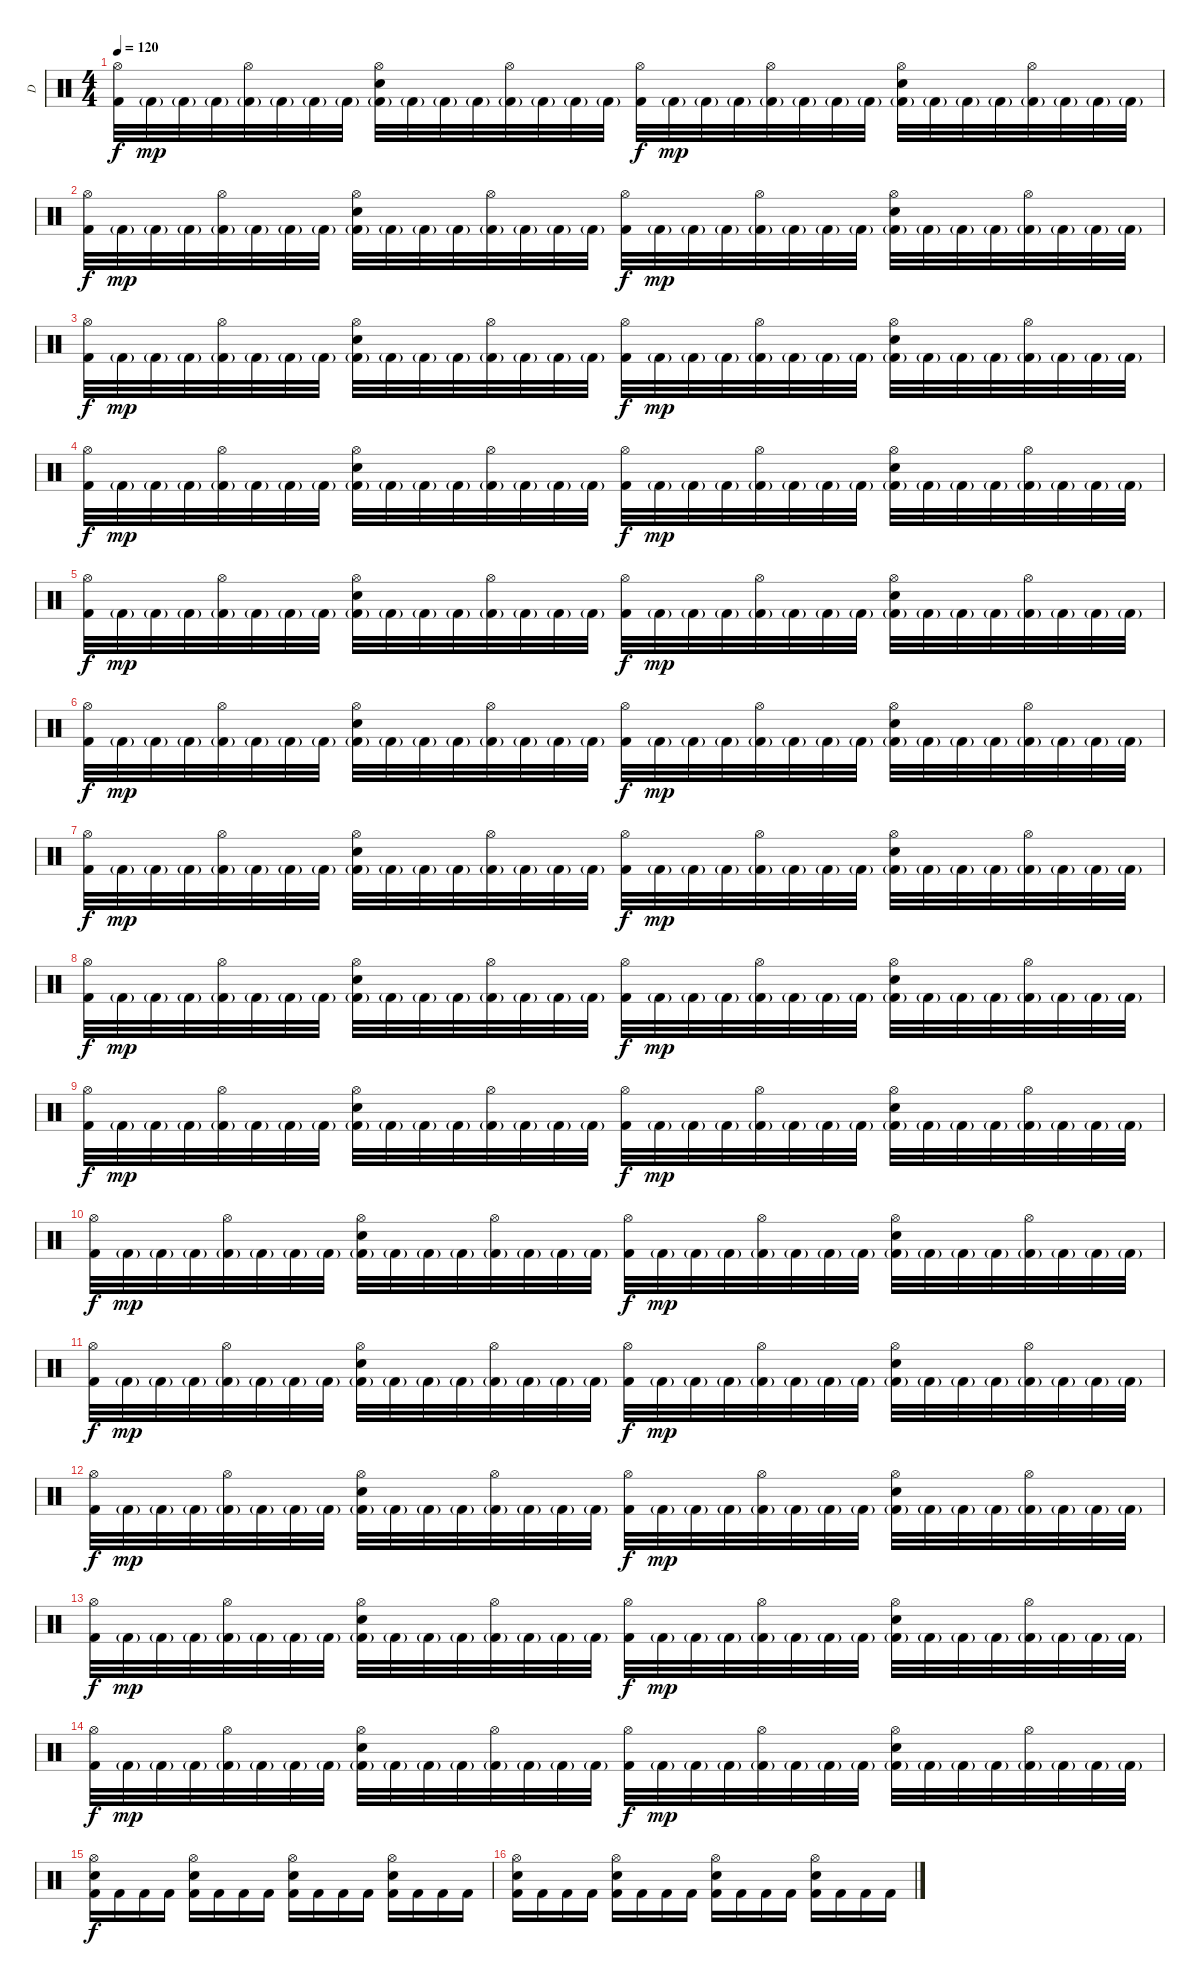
\track ("D" "D") {instrument percussion}
\staff {score}
\articulation defaults
\ts (4 4)
\tempo 120
\clef neutral
\ks c
("Hi-Hat (open)" "Kick (hit) 2").32{dy f} "Kick (hit) 2"{g}.32{dy mp} "Kick (hit) 2"{g}.32 "Kick (hit) 2"{g}.32 ("Hi-Hat (open)" "Kick (hit) 2"{g}).32 "Kick (hit) 2"{g}.32 "Kick (hit) 2"{g}.32 "Kick (hit) 2"{g}.32 ("Hi-Hat (open)" "Electric Snare (hit)" "Kick (hit) 2"{g}).32 "Kick (hit) 2"{g}.32 "Kick (hit) 2"{g}.32 "Kick (hit) 2"{g}.32 ("Hi-Hat (open)" "Kick (hit) 2"{g}).32 "Kick (hit) 2"{g}.32 "Kick (hit) 2"{g}.32 "Kick (hit) 2"{g}.32 ("Hi-Hat (open)" "Kick (hit) 2").32{dy f} "Kick (hit) 2"{g}.32{dy mp} "Kick (hit) 2"{g}.32 "Kick (hit) 2"{g}.32 ("Hi-Hat (open)" "Kick (hit) 2"{g}).32 "Kick (hit) 2"{g}.32 "Kick (hit) 2"{g}.32 "Kick (hit) 2"{g}.32 ("Hi-Hat (open)" "Electric Snare (hit)" "Kick (hit) 2"{g}).32 "Kick (hit) 2"{g}.32 "Kick (hit) 2"{g}.32 "Kick (hit) 2"{g}.32 ("Hi-Hat (open)" "Kick (hit) 2"{g}).32 "Kick (hit) 2"{g}.32 "Kick (hit) 2"{g}.32 "Kick (hit) 2"{g}.32 |
("Hi-Hat (open)" "Kick (hit) 2").32{dy f} "Kick (hit) 2"{g}.32{dy mp} "Kick (hit) 2"{g}.32 "Kick (hit) 2"{g}.32 ("Hi-Hat (open)" "Kick (hit) 2"{g}).32 "Kick (hit) 2"{g}.32 "Kick (hit) 2"{g}.32 "Kick (hit) 2"{g}.32 ("Hi-Hat (open)" "Electric Snare (hit)" "Kick (hit) 2"{g}).32 "Kick (hit) 2"{g}.32 "Kick (hit) 2"{g}.32 "Kick (hit) 2"{g}.32 ("Hi-Hat (open)" "Kick (hit) 2"{g}).32 "Kick (hit) 2"{g}.32 "Kick (hit) 2"{g}.32 "Kick (hit) 2"{g}.32 ("Hi-Hat (open)" "Kick (hit) 2").32{dy f} "Kick (hit) 2"{g}.32{dy mp} "Kick (hit) 2"{g}.32 "Kick (hit) 2"{g}.32 ("Hi-Hat (open)" "Kick (hit) 2"{g}).32 "Kick (hit) 2"{g}.32 "Kick (hit) 2"{g}.32 "Kick (hit) 2"{g}.32 ("Hi-Hat (open)" "Electric Snare (hit)" "Kick (hit) 2"{g}).32 "Kick (hit) 2"{g}.32 "Kick (hit) 2"{g}.32 "Kick (hit) 2"{g}.32 ("Hi-Hat (open)" "Kick (hit) 2"{g}).32 "Kick (hit) 2"{g}.32 "Kick (hit) 2"{g}.32 "Kick (hit) 2"{g}.32 |
("Hi-Hat (open)" "Kick (hit) 2").32{dy f} "Kick (hit) 2"{g}.32{dy mp} "Kick (hit) 2"{g}.32 "Kick (hit) 2"{g}.32 ("Hi-Hat (open)" "Kick (hit) 2"{g}).32 "Kick (hit) 2"{g}.32 "Kick (hit) 2"{g}.32 "Kick (hit) 2"{g}.32 ("Hi-Hat (open)" "Electric Snare (hit)" "Kick (hit) 2"{g}).32 "Kick (hit) 2"{g}.32 "Kick (hit) 2"{g}.32 "Kick (hit) 2"{g}.32 ("Hi-Hat (open)" "Kick (hit) 2"{g}).32 "Kick (hit) 2"{g}.32 "Kick (hit) 2"{g}.32 "Kick (hit) 2"{g}.32 ("Hi-Hat (open)" "Kick (hit) 2").32{dy f} "Kick (hit) 2"{g}.32{dy mp} "Kick (hit) 2"{g}.32 "Kick (hit) 2"{g}.32 ("Hi-Hat (open)" "Kick (hit) 2"{g}).32 "Kick (hit) 2"{g}.32 "Kick (hit) 2"{g}.32 "Kick (hit) 2"{g}.32 ("Hi-Hat (open)" "Electric Snare (hit)" "Kick (hit) 2"{g}).32 "Kick (hit) 2"{g}.32 "Kick (hit) 2"{g}.32 "Kick (hit) 2"{g}.32 ("Hi-Hat (open)" "Kick (hit) 2"{g}).32 "Kick (hit) 2"{g}.32 "Kick (hit) 2"{g}.32 "Kick (hit) 2"{g}.32 |
("Hi-Hat (open)" "Kick (hit) 2").32{dy f} "Kick (hit) 2"{g}.32{dy mp} "Kick (hit) 2"{g}.32 "Kick (hit) 2"{g}.32 ("Hi-Hat (open)" "Kick (hit) 2"{g}).32 "Kick (hit) 2"{g}.32 "Kick (hit) 2"{g}.32 "Kick (hit) 2"{g}.32 ("Hi-Hat (open)" "Electric Snare (hit)" "Kick (hit) 2"{g}).32 "Kick (hit) 2"{g}.32 "Kick (hit) 2"{g}.32 "Kick (hit) 2"{g}.32 ("Hi-Hat (open)" "Kick (hit) 2"{g}).32 "Kick (hit) 2"{g}.32 "Kick (hit) 2"{g}.32 "Kick (hit) 2"{g}.32 ("Hi-Hat (open)" "Kick (hit) 2").32{dy f} "Kick (hit) 2"{g}.32{dy mp} "Kick (hit) 2"{g}.32 "Kick (hit) 2"{g}.32 ("Hi-Hat (open)" "Kick (hit) 2"{g}).32 "Kick (hit) 2"{g}.32 "Kick (hit) 2"{g}.32 "Kick (hit) 2"{g}.32 ("Hi-Hat (open)" "Electric Snare (hit)" "Kick (hit) 2"{g}).32 "Kick (hit) 2"{g}.32 "Kick (hit) 2"{g}.32 "Kick (hit) 2"{g}.32 ("Hi-Hat (open)" "Kick (hit) 2"{g}).32 "Kick (hit) 2"{g}.32 "Kick (hit) 2"{g}.32 "Kick (hit) 2"{g}.32 |
("Hi-Hat (open)" "Kick (hit) 2").32{dy f} "Kick (hit) 2"{g}.32{dy mp} "Kick (hit) 2"{g}.32 "Kick (hit) 2"{g}.32 ("Hi-Hat (open)" "Kick (hit) 2"{g}).32 "Kick (hit) 2"{g}.32 "Kick (hit) 2"{g}.32 "Kick (hit) 2"{g}.32 ("Hi-Hat (open)" "Electric Snare (hit)" "Kick (hit) 2"{g}).32 "Kick (hit) 2"{g}.32 "Kick (hit) 2"{g}.32 "Kick (hit) 2"{g}.32 ("Hi-Hat (open)" "Kick (hit) 2"{g}).32 "Kick (hit) 2"{g}.32 "Kick (hit) 2"{g}.32 "Kick (hit) 2"{g}.32 ("Hi-Hat (open)" "Kick (hit) 2").32{dy f} "Kick (hit) 2"{g}.32{dy mp} "Kick (hit) 2"{g}.32 "Kick (hit) 2"{g}.32 ("Hi-Hat (open)" "Kick (hit) 2"{g}).32 "Kick (hit) 2"{g}.32 "Kick (hit) 2"{g}.32 "Kick (hit) 2"{g}.32 ("Hi-Hat (open)" "Electric Snare (hit)" "Kick (hit) 2"{g}).32 "Kick (hit) 2"{g}.32 "Kick (hit) 2"{g}.32 "Kick (hit) 2"{g}.32 ("Hi-Hat (open)" "Kick (hit) 2"{g}).32 "Kick (hit) 2"{g}.32 "Kick (hit) 2"{g}.32 "Kick (hit) 2"{g}.32 |
("Hi-Hat (open)" "Kick (hit) 2").32{dy f} "Kick (hit) 2"{g}.32{dy mp} "Kick (hit) 2"{g}.32 "Kick (hit) 2"{g}.32 ("Hi-Hat (open)" "Kick (hit) 2"{g}).32 "Kick (hit) 2"{g}.32 "Kick (hit) 2"{g}.32 "Kick (hit) 2"{g}.32 ("Hi-Hat (open)" "Electric Snare (hit)" "Kick (hit) 2"{g}).32 "Kick (hit) 2"{g}.32 "Kick (hit) 2"{g}.32 "Kick (hit) 2"{g}.32 ("Hi-Hat (open)" "Kick (hit) 2"{g}).32 "Kick (hit) 2"{g}.32 "Kick (hit) 2"{g}.32 "Kick (hit) 2"{g}.32 ("Hi-Hat (open)" "Kick (hit) 2").32{dy f} "Kick (hit) 2"{g}.32{dy mp} "Kick (hit) 2"{g}.32 "Kick (hit) 2"{g}.32 ("Hi-Hat (open)" "Kick (hit) 2"{g}).32 "Kick (hit) 2"{g}.32 "Kick (hit) 2"{g}.32 "Kick (hit) 2"{g}.32 ("Hi-Hat (open)" "Electric Snare (hit)" "Kick (hit) 2"{g}).32 "Kick (hit) 2"{g}.32 "Kick (hit) 2"{g}.32 "Kick (hit) 2"{g}.32 ("Hi-Hat (open)" "Kick (hit) 2"{g}).32 "Kick (hit) 2"{g}.32 "Kick (hit) 2"{g}.32 "Kick (hit) 2"{g}.32 |
("Hi-Hat (open)" "Kick (hit) 2").32{dy f} "Kick (hit) 2"{g}.32{dy mp} "Kick (hit) 2"{g}.32 "Kick (hit) 2"{g}.32 ("Hi-Hat (open)" "Kick (hit) 2"{g}).32 "Kick (hit) 2"{g}.32 "Kick (hit) 2"{g}.32 "Kick (hit) 2"{g}.32 ("Hi-Hat (open)" "Electric Snare (hit)" "Kick (hit) 2"{g}).32 "Kick (hit) 2"{g}.32 "Kick (hit) 2"{g}.32 "Kick (hit) 2"{g}.32 ("Hi-Hat (open)" "Kick (hit) 2"{g}).32 "Kick (hit) 2"{g}.32 "Kick (hit) 2"{g}.32 "Kick (hit) 2"{g}.32 ("Hi-Hat (open)" "Kick (hit) 2").32{dy f} "Kick (hit) 2"{g}.32{dy mp} "Kick (hit) 2"{g}.32 "Kick (hit) 2"{g}.32 ("Hi-Hat (open)" "Kick (hit) 2"{g}).32 "Kick (hit) 2"{g}.32 "Kick (hit) 2"{g}.32 "Kick (hit) 2"{g}.32 ("Hi-Hat (open)" "Electric Snare (hit)" "Kick (hit) 2"{g}).32 "Kick (hit) 2"{g}.32 "Kick (hit) 2"{g}.32 "Kick (hit) 2"{g}.32 ("Hi-Hat (open)" "Kick (hit) 2"{g}).32 "Kick (hit) 2"{g}.32 "Kick (hit) 2"{g}.32 "Kick (hit) 2"{g}.32 |
("Hi-Hat (open)" "Kick (hit) 2").32{dy f} "Kick (hit) 2"{g}.32{dy mp} "Kick (hit) 2"{g}.32 "Kick (hit) 2"{g}.32 ("Hi-Hat (open)" "Kick (hit) 2"{g}).32 "Kick (hit) 2"{g}.32 "Kick (hit) 2"{g}.32 "Kick (hit) 2"{g}.32 ("Hi-Hat (open)" "Electric Snare (hit)" "Kick (hit) 2"{g}).32 "Kick (hit) 2"{g}.32 "Kick (hit) 2"{g}.32 "Kick (hit) 2"{g}.32 ("Hi-Hat (open)" "Kick (hit) 2"{g}).32 "Kick (hit) 2"{g}.32 "Kick (hit) 2"{g}.32 "Kick (hit) 2"{g}.32 ("Hi-Hat (open)" "Kick (hit) 2").32{dy f} "Kick (hit) 2"{g}.32{dy mp} "Kick (hit) 2"{g}.32 "Kick (hit) 2"{g}.32 ("Hi-Hat (open)" "Kick (hit) 2"{g}).32 "Kick (hit) 2"{g}.32 "Kick (hit) 2"{g}.32 "Kick (hit) 2"{g}.32 ("Hi-Hat (open)" "Electric Snare (hit)" "Kick (hit) 2"{g}).32 "Kick (hit) 2"{g}.32 "Kick (hit) 2"{g}.32 "Kick (hit) 2"{g}.32 ("Hi-Hat (open)" "Kick (hit) 2"{g}).32 "Kick (hit) 2"{g}.32 "Kick (hit) 2"{g}.32 "Kick (hit) 2"{g}.32 |
("Hi-Hat (open)" "Kick (hit) 2").32{dy f} "Kick (hit) 2"{g}.32{dy mp} "Kick (hit) 2"{g}.32 "Kick (hit) 2"{g}.32 ("Hi-Hat (open)" "Kick (hit) 2"{g}).32 "Kick (hit) 2"{g}.32 "Kick (hit) 2"{g}.32 "Kick (hit) 2"{g}.32 ("Hi-Hat (open)" "Electric Snare (hit)" "Kick (hit) 2"{g}).32 "Kick (hit) 2"{g}.32 "Kick (hit) 2"{g}.32 "Kick (hit) 2"{g}.32 ("Hi-Hat (open)" "Kick (hit) 2"{g}).32 "Kick (hit) 2"{g}.32 "Kick (hit) 2"{g}.32 "Kick (hit) 2"{g}.32 ("Hi-Hat (open)" "Kick (hit) 2").32{dy f} "Kick (hit) 2"{g}.32{dy mp} "Kick (hit) 2"{g}.32 "Kick (hit) 2"{g}.32 ("Hi-Hat (open)" "Kick (hit) 2"{g}).32 "Kick (hit) 2"{g}.32 "Kick (hit) 2"{g}.32 "Kick (hit) 2"{g}.32 ("Hi-Hat (open)" "Electric Snare (hit)" "Kick (hit) 2"{g}).32 "Kick (hit) 2"{g}.32 "Kick (hit) 2"{g}.32 "Kick (hit) 2"{g}.32 ("Hi-Hat (open)" "Kick (hit) 2"{g}).32 "Kick (hit) 2"{g}.32 "Kick (hit) 2"{g}.32 "Kick (hit) 2"{g}.32 |
("Hi-Hat (open)" "Kick (hit) 2").32{dy f} "Kick (hit) 2"{g}.32{dy mp} "Kick (hit) 2"{g}.32 "Kick (hit) 2"{g}.32 ("Hi-Hat (open)" "Kick (hit) 2"{g}).32 "Kick (hit) 2"{g}.32 "Kick (hit) 2"{g}.32 "Kick (hit) 2"{g}.32 ("Hi-Hat (open)" "Electric Snare (hit)" "Kick (hit) 2"{g}).32 "Kick (hit) 2"{g}.32 "Kick (hit) 2"{g}.32 "Kick (hit) 2"{g}.32 ("Hi-Hat (open)" "Kick (hit) 2"{g}).32 "Kick (hit) 2"{g}.32 "Kick (hit) 2"{g}.32 "Kick (hit) 2"{g}.32 ("Hi-Hat (open)" "Kick (hit) 2").32{dy f} "Kick (hit) 2"{g}.32{dy mp} "Kick (hit) 2"{g}.32 "Kick (hit) 2"{g}.32 ("Hi-Hat (open)" "Kick (hit) 2"{g}).32 "Kick (hit) 2"{g}.32 "Kick (hit) 2"{g}.32 "Kick (hit) 2"{g}.32 ("Hi-Hat (open)" "Electric Snare (hit)" "Kick (hit) 2"{g}).32 "Kick (hit) 2"{g}.32 "Kick (hit) 2"{g}.32 "Kick (hit) 2"{g}.32 ("Hi-Hat (open)" "Kick (hit) 2"{g}).32 "Kick (hit) 2"{g}.32 "Kick (hit) 2"{g}.32 "Kick (hit) 2"{g}.32 |
("Hi-Hat (open)" "Kick (hit) 2").32{dy f} "Kick (hit) 2"{g}.32{dy mp} "Kick (hit) 2"{g}.32 "Kick (hit) 2"{g}.32 ("Hi-Hat (open)" "Kick (hit) 2"{g}).32 "Kick (hit) 2"{g}.32 "Kick (hit) 2"{g}.32 "Kick (hit) 2"{g}.32 ("Hi-Hat (open)" "Electric Snare (hit)" "Kick (hit) 2"{g}).32 "Kick (hit) 2"{g}.32 "Kick (hit) 2"{g}.32 "Kick (hit) 2"{g}.32 ("Hi-Hat (open)" "Kick (hit) 2"{g}).32 "Kick (hit) 2"{g}.32 "Kick (hit) 2"{g}.32 "Kick (hit) 2"{g}.32 ("Hi-Hat (open)" "Kick (hit) 2").32{dy f} "Kick (hit) 2"{g}.32{dy mp} "Kick (hit) 2"{g}.32 "Kick (hit) 2"{g}.32 ("Hi-Hat (open)" "Kick (hit) 2"{g}).32 "Kick (hit) 2"{g}.32 "Kick (hit) 2"{g}.32 "Kick (hit) 2"{g}.32 ("Hi-Hat (open)" "Electric Snare (hit)" "Kick (hit) 2"{g}).32 "Kick (hit) 2"{g}.32 "Kick (hit) 2"{g}.32 "Kick (hit) 2"{g}.32 ("Hi-Hat (open)" "Kick (hit) 2"{g}).32 "Kick (hit) 2"{g}.32 "Kick (hit) 2"{g}.32 "Kick (hit) 2"{g}.32 |
("Hi-Hat (open)" "Kick (hit) 2").32{dy f} "Kick (hit) 2"{g}.32{dy mp} "Kick (hit) 2"{g}.32 "Kick (hit) 2"{g}.32 ("Hi-Hat (open)" "Kick (hit) 2"{g}).32 "Kick (hit) 2"{g}.32 "Kick (hit) 2"{g}.32 "Kick (hit) 2"{g}.32 ("Hi-Hat (open)" "Electric Snare (hit)" "Kick (hit) 2"{g}).32 "Kick (hit) 2"{g}.32 "Kick (hit) 2"{g}.32 "Kick (hit) 2"{g}.32 ("Hi-Hat (open)" "Kick (hit) 2"{g}).32 "Kick (hit) 2"{g}.32 "Kick (hit) 2"{g}.32 "Kick (hit) 2"{g}.32 ("Hi-Hat (open)" "Kick (hit) 2").32{dy f} "Kick (hit) 2"{g}.32{dy mp} "Kick (hit) 2"{g}.32 "Kick (hit) 2"{g}.32 ("Hi-Hat (open)" "Kick (hit) 2"{g}).32 "Kick (hit) 2"{g}.32 "Kick (hit) 2"{g}.32 "Kick (hit) 2"{g}.32 ("Hi-Hat (open)" "Electric Snare (hit)" "Kick (hit) 2"{g}).32 "Kick (hit) 2"{g}.32 "Kick (hit) 2"{g}.32 "Kick (hit) 2"{g}.32 ("Hi-Hat (open)" "Kick (hit) 2"{g}).32 "Kick (hit) 2"{g}.32 "Kick (hit) 2"{g}.32 "Kick (hit) 2"{g}.32 |
("Hi-Hat (open)" "Kick (hit) 2").32{dy f} "Kick (hit) 2"{g}.32{dy mp} "Kick (hit) 2"{g}.32 "Kick (hit) 2"{g}.32 ("Hi-Hat (open)" "Kick (hit) 2"{g}).32 "Kick (hit) 2"{g}.32 "Kick (hit) 2"{g}.32 "Kick (hit) 2"{g}.32 ("Hi-Hat (open)" "Electric Snare (hit)" "Kick (hit) 2"{g}).32 "Kick (hit) 2"{g}.32 "Kick (hit) 2"{g}.32 "Kick (hit) 2"{g}.32 ("Hi-Hat (open)" "Kick (hit) 2"{g}).32 "Kick (hit) 2"{g}.32 "Kick (hit) 2"{g}.32 "Kick (hit) 2"{g}.32 ("Hi-Hat (open)" "Kick (hit) 2").32{dy f} "Kick (hit) 2"{g}.32{dy mp} "Kick (hit) 2"{g}.32 "Kick (hit) 2"{g}.32 ("Hi-Hat (open)" "Kick (hit) 2"{g}).32 "Kick (hit) 2"{g}.32 "Kick (hit) 2"{g}.32 "Kick (hit) 2"{g}.32 ("Hi-Hat (open)" "Electric Snare (hit)" "Kick (hit) 2"{g}).32 "Kick (hit) 2"{g}.32 "Kick (hit) 2"{g}.32 "Kick (hit) 2"{g}.32 ("Hi-Hat (open)" "Kick (hit) 2"{g}).32 "Kick (hit) 2"{g}.32 "Kick (hit) 2"{g}.32 "Kick (hit) 2"{g}.32 |
("Hi-Hat (open)" "Kick (hit) 2").32{dy f} "Kick (hit) 2"{g}.32{dy mp} "Kick (hit) 2"{g}.32 "Kick (hit) 2"{g}.32 ("Hi-Hat (open)" "Kick (hit) 2"{g}).32 "Kick (hit) 2"{g}.32 "Kick (hit) 2"{g}.32 "Kick (hit) 2"{g}.32 ("Hi-Hat (open)" "Electric Snare (hit)" "Kick (hit) 2"{g}).32 "Kick (hit) 2"{g}.32 "Kick (hit) 2"{g}.32 "Kick (hit) 2"{g}.32 ("Hi-Hat (open)" "Kick (hit) 2"{g}).32 "Kick (hit) 2"{g}.32 "Kick (hit) 2"{g}.32 "Kick (hit) 2"{g}.32 ("Hi-Hat (open)" "Kick (hit) 2").32{dy f} "Kick (hit) 2"{g}.32{dy mp} "Kick (hit) 2"{g}.32 "Kick (hit) 2"{g}.32 ("Hi-Hat (open)" "Kick (hit) 2"{g}).32 "Kick (hit) 2"{g}.32 "Kick (hit) 2"{g}.32 "Kick (hit) 2"{g}.32 ("Hi-Hat (open)" "Electric Snare (hit)" "Kick (hit) 2"{g}).32 "Kick (hit) 2"{g}.32 "Kick (hit) 2"{g}.32 "Kick (hit) 2"{g}.32 ("Hi-Hat (open)" "Kick (hit) 2"{g}).32 "Kick (hit) 2"{g}.32 "Kick (hit) 2"{g}.32 "Kick (hit) 2"{g}.32 |
("Hi-Hat (open)" "Electric Snare (hit)" "Kick (hit) 2").16{dy f} "Kick (hit) 2".16 "Kick (hit) 2".16 "Kick (hit) 2".16 ("Hi-Hat (open)" "Electric Snare (hit)" "Kick (hit) 2").16 "Kick (hit) 2".16 "Kick (hit) 2".16 "Kick (hit) 2".16 ("Hi-Hat (open)" "Electric Snare (hit)" "Kick (hit) 2").16 "Kick (hit) 2".16 "Kick (hit) 2".16 "Kick (hit) 2".16 ("Hi-Hat (open)" "Electric Snare (hit)" "Kick (hit) 2").16 "Kick (hit) 2".16 "Kick (hit) 2".16 "Kick (hit) 2".16 |
("Hi-Hat (open)" "Electric Snare (hit)" "Kick (hit) 2").16 "Kick (hit) 2".16 "Kick (hit) 2".16 "Kick (hit) 2".16 ("Hi-Hat (open)" "Electric Snare (hit)" "Kick (hit) 2").16 "Kick (hit) 2".16 "Kick (hit) 2".16 "Kick (hit) 2".16 ("Hi-Hat (open)" "Electric Snare (hit)" "Kick (hit) 2").16 "Kick (hit) 2".16 "Kick (hit) 2".16 "Kick (hit) 2".16 ("Hi-Hat (open)" "Electric Snare (hit)" "Kick (hit) 2").16 "Kick (hit) 2".16 "Kick (hit) 2".16 "Kick (hit) 2".16
